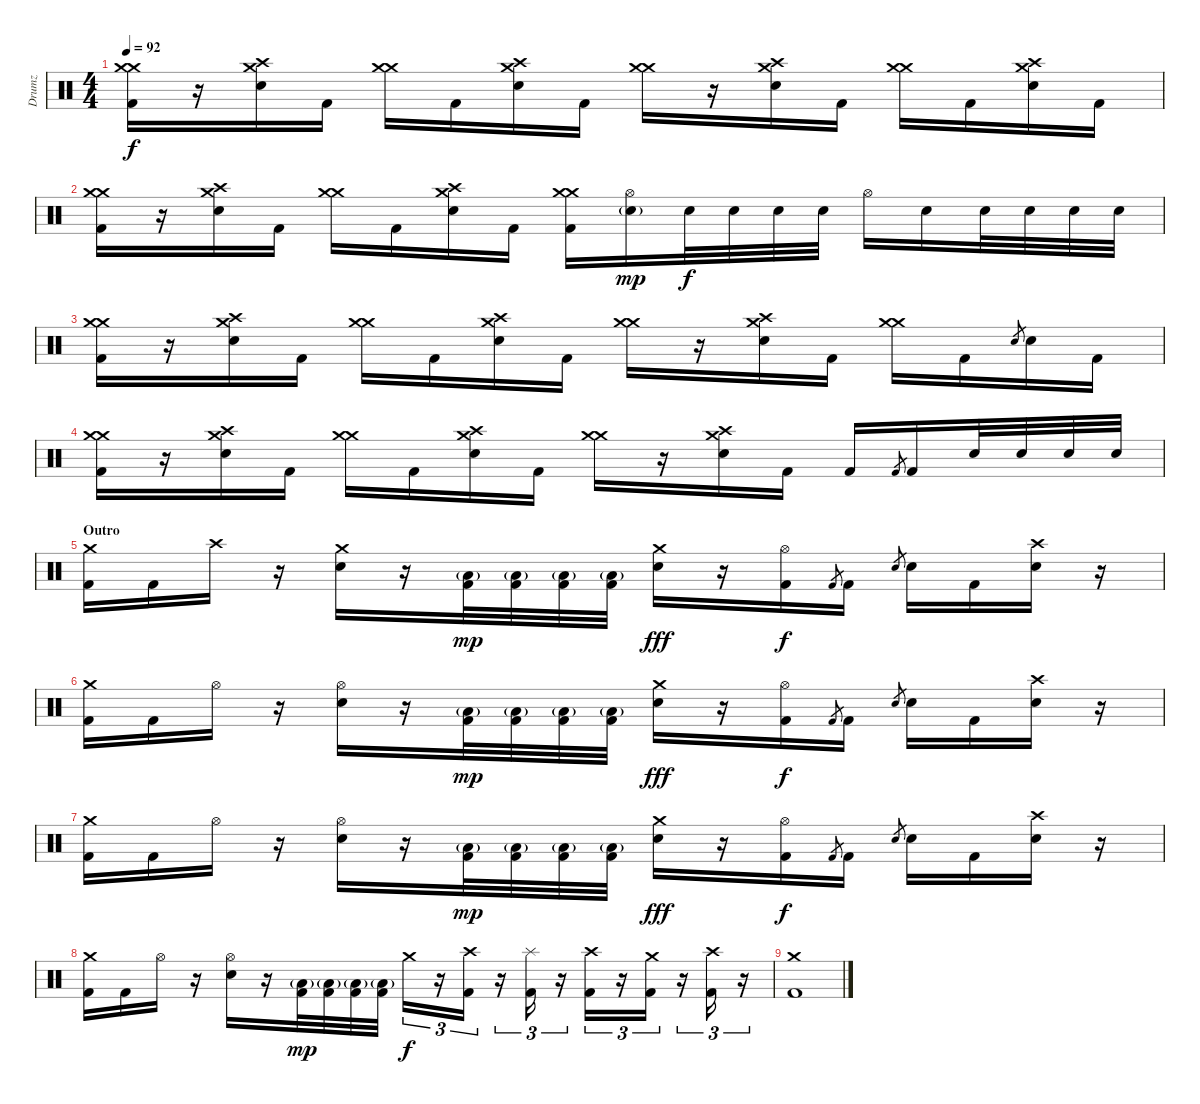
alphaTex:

\track ("Drumz" "Drumz") {instrument percussion}
\staff {score}
\articulation defaults
\ts (4 4)
\tempo 92
\clef neutral
\ks c
("Crash medium (hit)" "Crash medium (hit)" "Kick (hit) 2").16{dy f} r.16 ("Crash high (hit)" "Crash medium (hit)" "Electric Snare (hit)").16 "Kick (hit) 2".16 ("Crash medium (hit)" "Crash medium (hit)").16 "Kick (hit) 2".16 ("Crash high (hit)" "Crash medium (hit)" "Electric Snare (hit)").16 "Kick (hit) 2".16 ("Crash medium (hit)" "Crash medium (hit)").16 r.16 ("Crash high (hit)" "Crash medium (hit)" "Electric Snare (hit)").16 "Kick (hit) 2".16 ("Crash medium (hit)" "Crash medium (hit)").16 "Kick (hit) 2".16 ("Crash high (hit)" "Crash medium (hit)" "Electric Snare (hit)").16 "Kick (hit) 2".16 |
("Crash medium (hit)" "Crash medium (hit)" "Kick (hit) 2").16 r.16 ("Crash high (hit)" "Crash medium (hit)" "Electric Snare (hit)").16 "Kick (hit) 2".16 ("Crash medium (hit)" "Crash medium (hit)").16 "Kick (hit) 2".16 ("Crash high (hit)" "Crash medium (hit)" "Electric Snare (hit)").16 "Kick (hit) 2".16 ("Crash medium (hit)" "Crash medium (hit)" "Kick (hit) 2").16 ("Hi-Hat (open)" "Electric Snare (hit)"{g}).16{dy mp} "Electric Snare (hit)".32{dy f} "Electric Snare (hit)".32 "Electric Snare (hit)".32 "Electric Snare (hit)".32 "Hi-Hat (open)".16 "Electric Snare (hit)".16 "Electric Snare (hit)".32 "Electric Snare (hit)".32 "Electric Snare (hit)".32 "Electric Snare (hit)".32 |
("Crash medium (hit)" "Crash medium (hit)" "Kick (hit) 2").16 r.16 ("Crash high (hit)" "Crash medium (hit)" "Electric Snare (hit)").16 "Kick (hit) 2".16 ("Crash medium (hit)" "Crash medium (hit)").16 "Kick (hit) 2".16 ("Crash high (hit)" "Crash medium (hit)" "Electric Snare (hit)").16 "Kick (hit) 2".16 ("Crash medium (hit)" "Crash medium (hit)").16 r.16 ("Crash high (hit)" "Crash medium (hit)" "Electric Snare (hit)").16 "Kick (hit) 2".16 ("Crash medium (hit)" "Crash medium (hit)").16 "Kick (hit) 2".16 "Electric Snare (hit)".8{gr} "Electric Snare (hit)".16 "Kick (hit) 2".16 |
("Crash medium (hit)" "Crash medium (hit)" "Kick (hit) 2").16 r.16 ("Crash high (hit)" "Crash medium (hit)" "Electric Snare (hit)").16 "Kick (hit) 2".16 ("Crash medium (hit)" "Crash medium (hit)").16 "Kick (hit) 2".16 ("Crash high (hit)" "Crash medium (hit)" "Electric Snare (hit)").16 "Kick (hit) 2".16 ("Crash medium (hit)" "Crash medium (hit)").16 r.16 ("Crash high (hit)" "Crash medium (hit)" "Electric Snare (hit)").16 "Kick (hit) 2".16 "Kick (hit) 2".16 "Kick (hit) 2".8{gr} "Kick (hit) 2".16 "Electric Snare (hit)".32 "Electric Snare (hit)".32 "Electric Snare (hit)".32 "Electric Snare (hit)".32 |
\section ("" "Outro")
("Crash medium (hit)" "Kick (hit) 2").16 "Kick (hit) 2".16 "Crash high (hit)".16 r.16 ("Crash medium (hit)" "Electric Snare (hit)").16 r.16 ("Low Floor Tom (hit)"{g} "Kick (hit) 2").32{dy mp} ("Low Floor Tom (hit)"{g} "Kick (hit) 2").32 ("Low Floor Tom (hit)"{g} "Kick (hit) 2").32 ("Low Floor Tom (hit)"{g} "Kick (hit) 2").32 ("Crash medium (hit)" "Electric Snare (hit)").16{dy fff} r.16 ("Hi-Hat (open)" "Kick (hit) 2").16{dy f} "Kick (hit) 2".8{gr} "Kick (hit) 2".16 "Electric Snare (hit)".8{gr} "Electric Snare (hit)".16 "Kick (hit) 2".16 ("Crash high (hit)" "Electric Snare (hit)").16 r.16 |
("Crash medium (hit)" "Kick (hit) 2").16 "Kick (hit) 2".16 "Hi-Hat (open)".16 r.16 ("Hi-Hat (open)" "Electric Snare (hit)").16 r.16 ("Low Floor Tom (hit)"{g} "Kick (hit) 2").32{dy mp} ("Low Floor Tom (hit)"{g} "Kick (hit) 2").32 ("Low Floor Tom (hit)"{g} "Kick (hit) 2").32 ("Low Floor Tom (hit)"{g} "Kick (hit) 2").32 ("Crash medium (hit)" "Electric Snare (hit)").16{dy fff} r.16 ("Hi-Hat (open)" "Kick (hit) 2").16{dy f} "Kick (hit) 2".8{gr} "Kick (hit) 2".16 "Electric Snare (hit)".8{gr} "Electric Snare (hit)".16 "Kick (hit) 2".16 ("Crash high (hit)" "Electric Snare (hit)").16 r.16 |
("Crash medium (hit)" "Kick (hit) 2").16 "Kick (hit) 2".16 "Hi-Hat (open)".16 r.16 ("Hi-Hat (open)" "Electric Snare (hit)").16 r.16 ("Low Floor Tom (hit)"{g} "Kick (hit) 2").32{dy mp} ("Low Floor Tom (hit)"{g} "Kick (hit) 2").32 ("Low Floor Tom (hit)"{g} "Kick (hit) 2").32 ("Low Floor Tom (hit)"{g} "Kick (hit) 2").32 ("Crash medium (hit)" "Electric Snare (hit)").16{dy fff} r.16 ("Hi-Hat (open)" "Kick (hit) 2").16{dy f} "Kick (hit) 2".8{gr} "Kick (hit) 2".16 "Electric Snare (hit)".8{gr} "Electric Snare (hit)".16 "Kick (hit) 2".16 ("Crash high (hit)" "Electric Snare (hit)").16 r.16 |
("Crash medium (hit)" "Kick (hit) 2").16 "Kick (hit) 2".16 "Hi-Hat (open)".16 r.16 ("Hi-Hat (open)" "Electric Snare (hit)").16 r.16 ("Low Floor Tom (hit)"{g} "Kick (hit) 2").32{dy mp} ("Low Floor Tom (hit)"{g} "Kick (hit) 2").32 ("Low Floor Tom (hit)"{g} "Kick (hit) 2").32 ("Low Floor Tom (hit)"{g} "Kick (hit) 2").32 "Crash medium (hit)".16{tu (3 2) dy f} r.16{tu (3 2)} ("Crash high (hit)" "Kick (hit) 2").16{tu (3 2)} r.16{tu (3 2)} ("Splash (hit)" "Kick (hit) 2").16{tu (3 2)} r.16{tu (3 2)} ("Crash high (hit)" "Kick (hit) 2").16{tu (3 2)} r.16{tu (3 2)} ("Crash medium (hit)" "Kick (hit) 2").16{tu (3 2)} r.16{tu (3 2)} ("Crash high (hit)" "Kick (hit) 2").16{tu (3 2)} r.16{tu (3 2)} |
("Crash medium (hit)" "Kick (hit) 2").1
